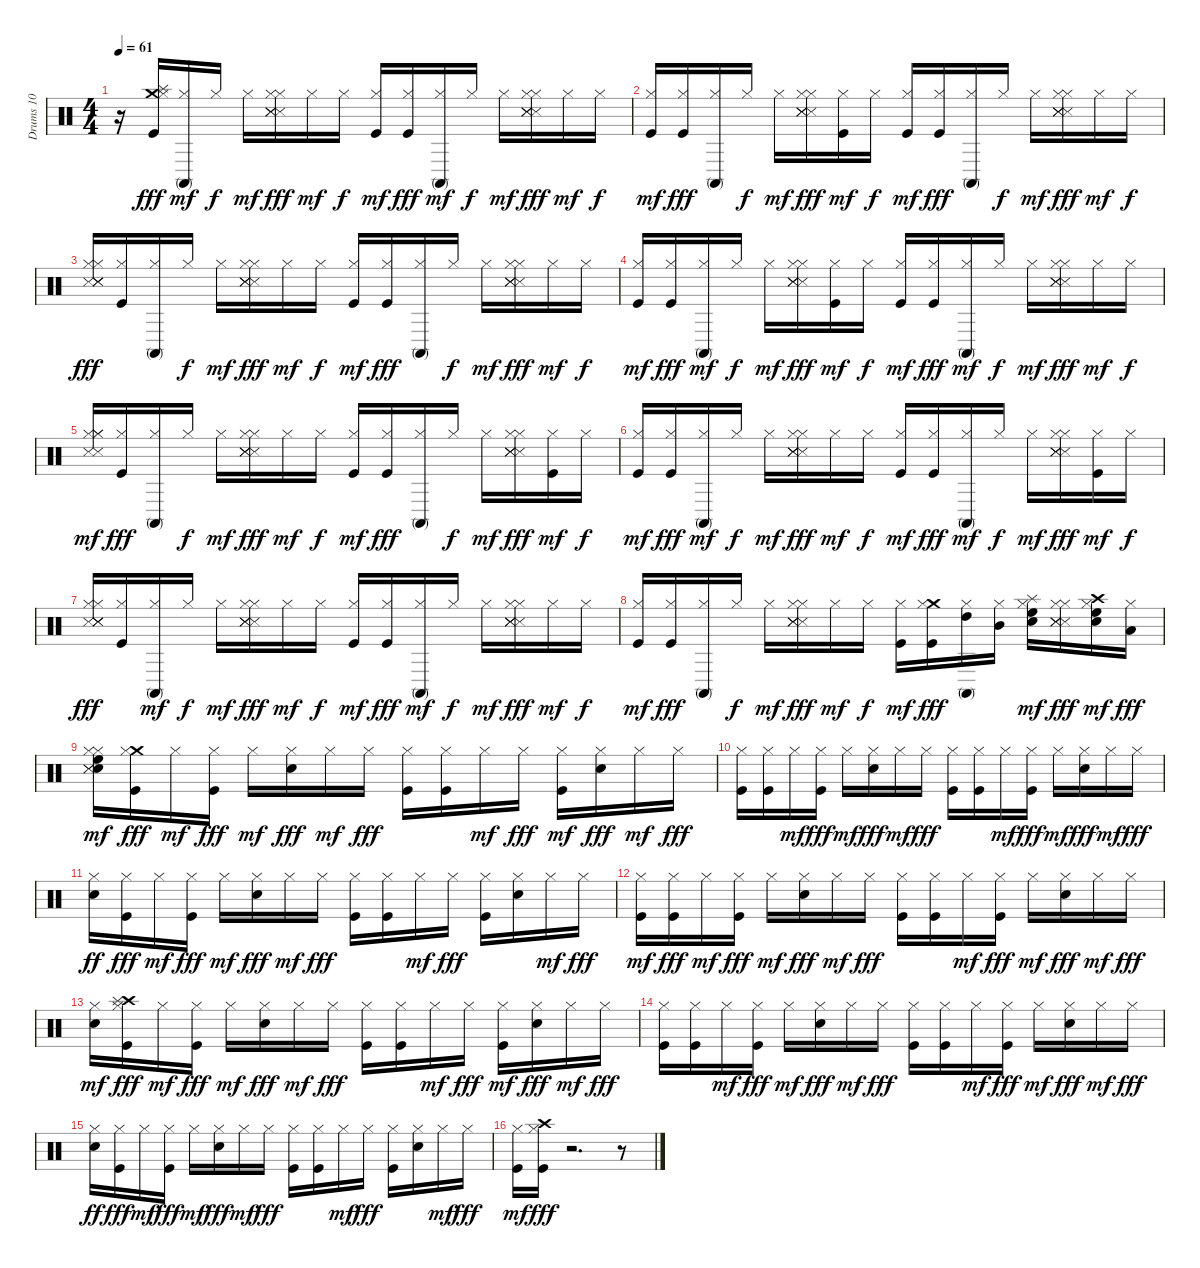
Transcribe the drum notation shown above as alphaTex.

\track ("Drums 10" "Drums 10") {instrument percussion}
\staff {score}
\articulation defaults
\ts (4 4)
\tempo 61
\clef neutral
\ks c
r.16{dy pp} ("Splash (hit)" "Crash medium (hit)" "Hi-Hat (closed)" "Kick (hit)").16{dy fff} ("Conga high (mute)" "Hi-Hat (closed)").16{dy mf} "Hi-Hat (closed)".16{dy f} "Hi-Hat (closed)".16{dy mf} ("Snare (side stick) 3" "Snare (side stick) 3" "Snare (side stick) 3" "Snare (side stick) 3" "Hi-Hat (closed)" "Hi-Hat (closed)").16{dy fff} "Hi-Hat (closed)".16{dy mf} "Hi-Hat (closed)".16{dy f} ("Kick (hit)" "Hi-Hat (closed)").16{dy mf} ("Kick (hit)" "Hi-Hat (closed)").16{dy fff} ("Conga high (mute)" "Hi-Hat (closed)").16{dy mf} "Hi-Hat (closed)".16{dy f} "Hi-Hat (closed)".16{dy mf} ("Snare (side stick) 3" "Snare (side stick) 3" "Snare (side stick) 3" "Snare (side stick) 3" "Hi-Hat (closed)" "Hi-Hat (closed)").16{dy fff} "Hi-Hat (closed)".16{dy mf} "Hi-Hat (closed)".16{dy f} |
("Kick (hit)" "Hi-Hat (closed)").16{dy mf} ("Hi-Hat (closed)" "Kick (hit)").16{dy fff} ("Hi-Hat (closed)" "Conga high (mute)").16 "Hi-Hat (closed)".16{dy f} "Hi-Hat (closed)".16{dy mf} ("Snare (side stick) 3" "Snare (side stick) 3" "Snare (side stick) 3" "Snare (side stick) 3" "Hi-Hat (closed)" "Hi-Hat (closed)").16{dy fff} ("Kick (hit)" "Hi-Hat (closed)").16{dy mf} "Hi-Hat (closed)".16{dy f} ("Kick (hit)" "Hi-Hat (closed)").16{dy mf} ("Hi-Hat (closed)" "Kick (hit)").16{dy fff} ("Hi-Hat (closed)" "Conga high (mute)").16 "Hi-Hat (closed)".16{dy f} "Hi-Hat (closed)".16{dy mf} ("Snare (side stick) 3" "Snare (side stick) 3" "Snare (side stick) 3" "Snare (side stick) 3" "Hi-Hat (closed)" "Hi-Hat (closed)").16{dy fff} "Hi-Hat (closed)".16{dy mf} "Hi-Hat (closed)".16{dy f} |
("Snare (side stick) 3" "Snare (side stick) 3" "Snare (side stick) 3" "Snare (side stick) 3" "Hi-Hat (closed)" "Hi-Hat (closed)").16{dy fff} ("Hi-Hat (closed)" "Kick (hit)").16 ("Hi-Hat (closed)" "Conga high (mute)").16 "Hi-Hat (closed)".16{dy f} "Hi-Hat (closed)".16{dy mf} ("Snare (side stick) 3" "Snare (side stick) 3" "Snare (side stick) 3" "Snare (side stick) 3" "Hi-Hat (closed)" "Hi-Hat (closed)").16{dy fff} "Hi-Hat (closed)".16{dy mf} "Hi-Hat (closed)".16{dy f} ("Kick (hit)" "Hi-Hat (closed)").16{dy mf} ("Hi-Hat (closed)" "Kick (hit)").16{dy fff} ("Hi-Hat (closed)" "Conga high (mute)").16 "Hi-Hat (closed)".16{dy f} "Hi-Hat (closed)".16{dy mf} ("Snare (side stick) 3" "Snare (side stick) 3" "Snare (side stick) 3" "Snare (side stick) 3" "Hi-Hat (closed)" "Hi-Hat (closed)").16{dy fff} "Hi-Hat (closed)".16{dy mf} "Hi-Hat (closed)".16{dy f} |
("Kick (hit)" "Hi-Hat (closed)").16{dy mf} ("Kick (hit)" "Hi-Hat (closed)").16{dy fff} ("Conga high (mute)" "Hi-Hat (closed)").16{dy mf} "Hi-Hat (closed)".16{dy f} "Hi-Hat (closed)".16{dy mf} ("Snare (side stick) 3" "Snare (side stick) 3" "Snare (side stick) 3" "Snare (side stick) 3" "Hi-Hat (closed)" "Hi-Hat (closed)").16{dy fff} ("Kick (hit)" "Hi-Hat (closed)").16{dy mf} "Hi-Hat (closed)".16{dy f} ("Kick (hit)" "Hi-Hat (closed)").16{dy mf} ("Kick (hit)" "Hi-Hat (closed)").16{dy fff} ("Conga high (mute)" "Hi-Hat (closed)").16{dy mf} "Hi-Hat (closed)".16{dy f} "Hi-Hat (closed)".16{dy mf} ("Snare (side stick) 3" "Snare (side stick) 3" "Snare (side stick) 3" "Snare (side stick) 3" "Hi-Hat (closed)" "Hi-Hat (closed)").16{dy fff} "Hi-Hat (closed)".16{dy mf} "Hi-Hat (closed)".16{dy f} |
("Snare (side stick) 3" "Snare (side stick) 3" "Hi-Hat (closed)" "Hi-Hat (closed)" "Hi-Hat (closed)").16{dy mf} ("Hi-Hat (closed)" "Kick (hit)").16{dy fff} ("Hi-Hat (closed)" "Conga high (mute)").16 "Hi-Hat (closed)".16{dy f} "Hi-Hat (closed)".16{dy mf} ("Snare (side stick) 3" "Snare (side stick) 3" "Snare (side stick) 3" "Snare (side stick) 3" "Hi-Hat (closed)" "Hi-Hat (closed)").16{dy fff} "Hi-Hat (closed)".16{dy mf} "Hi-Hat (closed)".16{dy f} ("Kick (hit)" "Hi-Hat (closed)").16{dy mf} ("Hi-Hat (closed)" "Kick (hit)").16{dy fff} ("Hi-Hat (closed)" "Conga high (mute)").16 "Hi-Hat (closed)".16{dy f} "Hi-Hat (closed)".16{dy mf} ("Snare (side stick) 3" "Snare (side stick) 3" "Snare (side stick) 3" "Snare (side stick) 3" "Hi-Hat (closed)" "Hi-Hat (closed)").16{dy fff} ("Kick (hit)" "Hi-Hat (closed)").16{dy mf} "Hi-Hat (closed)".16{dy f} |
("Kick (hit)" "Hi-Hat (closed)").16{dy mf} ("Kick (hit)" "Hi-Hat (closed)").16{dy fff} ("Conga high (mute)" "Hi-Hat (closed)").16{dy mf} "Hi-Hat (closed)".16{dy f} "Hi-Hat (closed)".16{dy mf} ("Snare (side stick) 3" "Snare (side stick) 3" "Snare (side stick) 3" "Snare (side stick) 3" "Hi-Hat (closed)" "Hi-Hat (closed)").16{dy fff} "Hi-Hat (closed)".16{dy mf} "Hi-Hat (closed)".16{dy f} ("Kick (hit)" "Hi-Hat (closed)").16{dy mf} ("Kick (hit)" "Hi-Hat (closed)").16{dy fff} ("Conga high (mute)" "Hi-Hat (closed)").16{dy mf} "Hi-Hat (closed)".16{dy f} "Hi-Hat (closed)".16{dy mf} ("Snare (side stick) 3" "Snare (side stick) 3" "Snare (side stick) 3" "Snare (side stick) 3" "Hi-Hat (closed)" "Hi-Hat (closed)").16{dy fff} ("Kick (hit)" "Hi-Hat (closed)").16{dy mf} "Hi-Hat (closed)".16{dy f} |
("Snare (side stick) 3" "Snare (side stick) 3" "Snare (side stick) 3" "Snare (side stick) 3" "Hi-Hat (closed)" "Hi-Hat (closed)").16{dy fff} ("Kick (hit)" "Hi-Hat (closed)").16 ("Conga high (mute)" "Hi-Hat (closed)").16{dy mf} "Hi-Hat (closed)".16{dy f} "Hi-Hat (closed)".16{dy mf} ("Snare (side stick) 3" "Snare (side stick) 3" "Snare (side stick) 3" "Snare (side stick) 3" "Hi-Hat (closed)" "Hi-Hat (closed)").16{dy fff} "Hi-Hat (closed)".16{dy mf} "Hi-Hat (closed)".16{dy f} ("Kick (hit)" "Hi-Hat (closed)").16{dy mf} ("Kick (hit)" "Hi-Hat (closed)").16{dy fff} ("Conga high (mute)" "Hi-Hat (closed)").16{dy mf} "Hi-Hat (closed)".16{dy f} "Hi-Hat (closed)".16{dy mf} ("Snare (side stick) 3" "Snare (side stick) 3" "Snare (side stick) 3" "Snare (side stick) 3" "Hi-Hat (closed)" "Hi-Hat (closed)").16{dy fff} "Hi-Hat (closed)".16{dy mf} "Hi-Hat (closed)".16{dy f} |
("Kick (hit)" "Hi-Hat (closed)").16{dy mf} ("Hi-Hat (closed)" "Kick (hit)").16{dy fff} ("Hi-Hat (closed)" "Conga high (mute)").16 "Hi-Hat (closed)".16{dy f} "Hi-Hat (closed)".16{dy mf} ("Snare (side stick) 3" "Snare (side stick) 3" "Snare (side stick) 3" "Snare (side stick) 3" "Hi-Hat (closed)" "Hi-Hat (closed)").16{dy fff} "Hi-Hat (closed)".16{dy mf} "Hi-Hat (closed)".16{dy f} ("Kick (hit)" "Hi-Hat (closed)").16{dy mf} ("Crash medium (hit)" "Hi-Hat (closed)" "Kick (hit)").16{dy fff} ("High Tom (hit)" "Hi-Hat (closed)" "Conga high (mute)").16 ("Mid Tom (hit)" "Hi-Hat (closed)").16 ("Splash (hit)" "Electric Snare (hit)" "High Floor Tom (hit)" "Hi-Hat (closed)").16{dy mf} ("Snare (side stick) 3" "Snare (side stick) 3" "Snare (side stick) 3" "Snare (side stick) 3" "Hi-Hat (closed)" "Hi-Hat (closed)").16{dy fff} ("Crash high (hit)" "Electric Snare (hit)" "High Floor Tom (hit)" "Hi-Hat (closed)").16{dy mf} ("Low Tom (hit)" "Hi-Hat (closed)").16{dy fff} |
("Electric Snare (hit)" "High Floor Tom (hit)" "Snare (side stick) 3" "Snare (side stick) 3" "Hi-Hat (closed)" "Hi-Hat (closed)").16{dy mf} ("Crash medium (hit)" "Hi-Hat (closed)" "Kick (hit)").16{dy fff} "Hi-Hat (closed)".16{dy mf} ("Hi-Hat (closed)" "Kick (hit)").16{dy fff} "Hi-Hat (closed)".16{dy mf} ("Metronome (bell)" "Hi-Hat (closed)").16{dy fff} "Hi-Hat (closed)".16{dy mf} "Hi-Hat (closed)".16{dy fff} ("Hi-Hat (closed)" "Kick (hit)").16 ("Hi-Hat (closed)" "Kick (hit)").16 "Hi-Hat (closed)".16{dy mf} "Hi-Hat (closed)".16{dy fff} ("Kick (hit)" "Hi-Hat (closed)").16{dy mf} ("Hi-Hat (closed)" "Metronome (bell)").16{dy fff} "Hi-Hat (closed)".16{dy mf} "Hi-Hat (closed)".16{dy fff} |
("Hi-Hat (closed)" "Kick (hit)").16 ("Hi-Hat (closed)" "Kick (hit)").16 "Hi-Hat (closed)".16{dy mf} ("Hi-Hat (closed)" "Kick (hit)").16{dy fff} "Hi-Hat (closed)".16{dy mf} ("Hi-Hat (closed)" "Metronome (bell)").16{dy fff} "Hi-Hat (closed)".16{dy mf} "Hi-Hat (closed)".16{dy fff} ("Hi-Hat (closed)" "Kick (hit)").16 ("Hi-Hat (closed)" "Kick (hit)").16 "Hi-Hat (closed)".16{dy mf} ("Hi-Hat (closed)" "Kick (hit)").16{dy fff} "Hi-Hat (closed)".16{dy mf} ("Hi-Hat (closed)" "Metronome (bell)").16{dy fff} "Hi-Hat (closed)".16{dy mf} "Hi-Hat (closed)".16{dy fff} |
("Hi-Hat (closed)" "Metronome (bell)").16{dy ff} ("Hi-Hat (closed)" "Kick (hit)").16{dy fff} "Hi-Hat (closed)".16{dy mf} ("Hi-Hat (closed)" "Kick (hit)").16{dy fff} "Hi-Hat (closed)".16{dy mf} ("Hi-Hat (closed)" "Metronome (bell)").16{dy fff} "Hi-Hat (closed)".16{dy mf} "Hi-Hat (closed)".16{dy fff} ("Hi-Hat (closed)" "Kick (hit)").16 ("Hi-Hat (closed)" "Kick (hit)").16 "Hi-Hat (closed)".16{dy mf} "Hi-Hat (closed)".16{dy fff} ("Hi-Hat (closed)" "Kick (hit)").16 ("Metronome (bell)" "Hi-Hat (closed)").16 "Hi-Hat (closed)".16{dy mf} "Hi-Hat (closed)".16{dy fff} |
("Kick (hit)" "Hi-Hat (closed)").16{dy mf} ("Hi-Hat (closed)" "Kick (hit)").16{dy fff} "Hi-Hat (closed)".16{dy mf} ("Kick (hit)" "Hi-Hat (closed)").16{dy fff} "Hi-Hat (closed)".16{dy mf} ("Hi-Hat (closed)" "Metronome (bell)").16{dy fff} "Hi-Hat (closed)".16{dy mf} "Hi-Hat (closed)".16{dy fff} ("Hi-Hat (closed)" "Kick (hit)").16 ("Hi-Hat (closed)" "Kick (hit)").16 "Hi-Hat (closed)".16{dy mf} ("Kick (hit)" "Hi-Hat (closed)").16{dy fff} "Hi-Hat (closed)".16{dy mf} ("Metronome (bell)" "Hi-Hat (closed)").16{dy fff} "Hi-Hat (closed)".16{dy mf} "Hi-Hat (closed)".16{dy fff} |
("Metronome (bell)" "Hi-Hat (closed)").16{dy mf} ("Crash high (hit)" "Hi-Hat (closed)" "Kick (hit)" "Splash (hit)").16{dy fff} "Hi-Hat (closed)".16{dy mf} ("Hi-Hat (closed)" "Kick (hit)").16{dy fff} "Hi-Hat (closed)".16{dy mf} ("Metronome (bell)" "Hi-Hat (closed)").16{dy fff} "Hi-Hat (closed)".16{dy mf} "Hi-Hat (closed)".16{dy fff} ("Hi-Hat (closed)" "Kick (hit)").16 ("Hi-Hat (closed)" "Kick (hit)").16 "Hi-Hat (closed)".16{dy mf} "Hi-Hat (closed)".16{dy fff} ("Kick (hit)" "Hi-Hat (closed)").16{dy mf} ("Hi-Hat (closed)" "Metronome (bell)").16{dy fff} "Hi-Hat (closed)".16{dy mf} "Hi-Hat (closed)".16{dy fff} |
("Hi-Hat (closed)" "Kick (hit)").16 ("Hi-Hat (closed)" "Kick (hit)").16 "Hi-Hat (closed)".16{dy mf} ("Hi-Hat (closed)" "Kick (hit)").16{dy fff} "Hi-Hat (closed)".16{dy mf} ("Hi-Hat (closed)" "Metronome (bell)").16{dy fff} "Hi-Hat (closed)".16{dy mf} "Hi-Hat (closed)".16{dy fff} ("Hi-Hat (closed)" "Kick (hit)").16 ("Hi-Hat (closed)" "Kick (hit)").16 "Hi-Hat (closed)".16{dy mf} ("Hi-Hat (closed)" "Kick (hit)").16{dy fff} "Hi-Hat (closed)".16{dy mf} ("Hi-Hat (closed)" "Metronome (bell)").16{dy fff} "Hi-Hat (closed)".16{dy mf} "Hi-Hat (closed)".16{dy fff} |
("Hi-Hat (closed)" "Metronome (bell)").16{dy ff} ("Hi-Hat (closed)" "Kick (hit)").16{dy fff} "Hi-Hat (closed)".16{dy mf} ("Hi-Hat (closed)" "Kick (hit)").16{dy fff} "Hi-Hat (closed)".16{dy mf} ("Hi-Hat (closed)" "Metronome (bell)").16{dy fff} "Hi-Hat (closed)".16{dy mf} "Hi-Hat (closed)".16{dy fff} ("Hi-Hat (closed)" "Kick (hit)").16 ("Hi-Hat (closed)" "Kick (hit)").16 "Hi-Hat (closed)".16{dy mf} "Hi-Hat (closed)".16{dy fff} ("Hi-Hat (closed)" "Kick (hit)").16 ("Metronome (bell)" "Hi-Hat (closed)").16 "Hi-Hat (closed)".16{dy mf} "Hi-Hat (closed)".16{dy fff} |
("Kick (hit)" "Hi-Hat (closed)").16{dy mf} ("Crash high (hit)" "Hi-Hat (closed)" "Kick (hit)").16{dy fff} r.2{d} r.8
